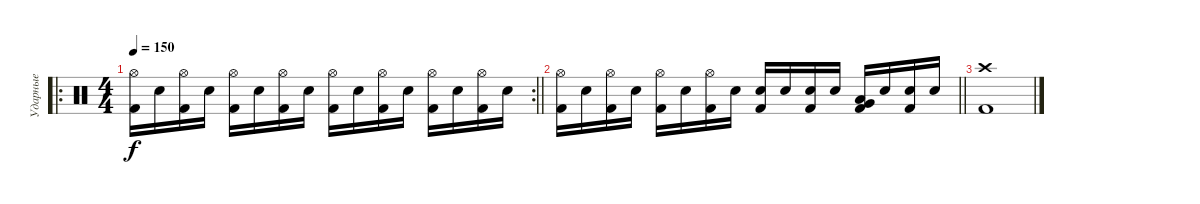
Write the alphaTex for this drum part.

\track ("Ударные" "Ударные") {instrument percussion}
\staff {score}
\articulation defaults
\ro
\rc 2
\ts (4 4)
\tempo 150
\clef neutral
\barLineRight lightlight
\ks c
("Hi-Hat (open)" "Kick (hit) 2").16{dy f} "Electric Snare (hit)".16 ("Hi-Hat (open)" "Kick (hit) 2").16 "Electric Snare (hit)".16 ("Hi-Hat (open)" "Kick (hit) 2").16 "Electric Snare (hit)".16 ("Hi-Hat (open)" "Kick (hit) 2").16 "Electric Snare (hit)".16 ("Hi-Hat (open)" "Kick (hit) 2").16 "Electric Snare (hit)".16 ("Hi-Hat (open)" "Kick (hit) 2").16 "Electric Snare (hit)".16 ("Hi-Hat (open)" "Kick (hit) 2").16 "Electric Snare (hit)".16 ("Hi-Hat (open)" "Kick (hit) 2").16 "Electric Snare (hit)".16 |
\barLineRight lightlight
("Hi-Hat (open)" "Kick (hit) 2").16 "Electric Snare (hit)".16 ("Hi-Hat (open)" "Kick (hit) 2").16 "Electric Snare (hit)".16 ("Hi-Hat (open)" "Kick (hit) 2").16 "Electric Snare (hit)".16 ("Hi-Hat (open)" "Kick (hit) 2").16 "Electric Snare (hit)".16 ("Electric Snare (hit)" "Kick (hit) 2").16 "Electric Snare (hit)".16 ("Electric Snare (hit)" "Kick (hit) 2").16 "Electric Snare (hit)".16 ("Very Low Tom (hit)" "Low Floor Tom (hit)" "Kick (hit) 2").16 "Electric Snare (hit)".16 ("Electric Snare (hit)" "Kick (hit) 2").16 "Electric Snare (hit)".16 |
("Crash high (hit)" "Kick (hit) 2").1
